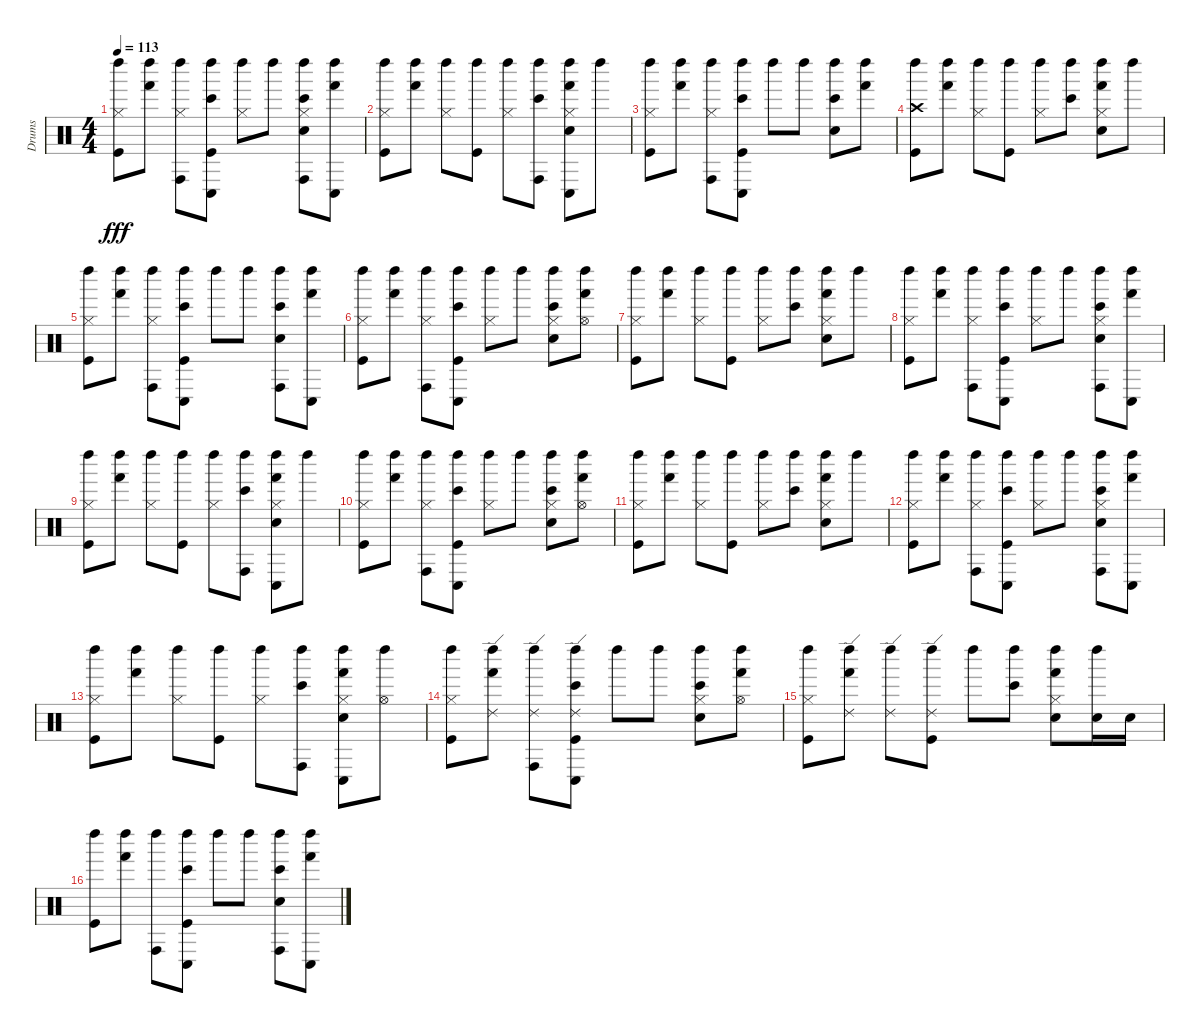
\track ("Drums" "Drums") {instrument percussion}
\staff {score}
\articulation defaults
\ts (4 4)
\tempo 113
\clef neutral
\ks c
("Hi-Hat (closed)" "Left Maraca (hit)" "Kick (hit)").8{dy fff} ("Left Maraca (hit)" "Hand (hit)").8 ("Hi-Hat (closed)" "Left Maraca (hit)" "Conga high (hit)").8 ("Left Maraca (hit)" "Conga low (hit)" "Bongo High (hit)" "Kick (hit)").8 ("Hi-Hat (closed)" "Left Maraca (hit)").8 "Left Maraca (hit)".8 ("Hi-Hat (closed)" "Left Maraca (hit)" "Conga high (hit)" "Bongo High (hit)" "Snare (hit) 2").8 ("Left Maraca (hit)" "Conga low (hit)" "Hand (hit)").8 |
("Hi-Hat (closed)" "Left Maraca (hit)" "Kick (hit)").8 ("Left Maraca (hit)" "Hand (hit)").8 ("Hi-Hat (closed)" "Left Maraca (hit)").8 ("Left Maraca (hit)" "Kick (hit)").8 ("Hi-Hat (closed)" "Left Maraca (hit)").8 ("Left Maraca (hit)" "Conga high (hit)" "Bongo High (hit)").8 ("Hi-Hat (closed)" "Left Maraca (hit)" "Conga low (hit)" "Hand (hit)" "Snare (hit) 2").8 "Left Maraca (hit)".8 |
("Hi-Hat (closed)" "Left Maraca (hit)" "Kick (hit)").8 ("Left Maraca (hit)" "Hand (hit)").8 ("Hi-Hat (closed)" "Left Maraca (hit)" "Conga high (hit)").8 ("Left Maraca (hit)" "Conga low (hit)" "Bongo High (hit)" "Kick (hit)").8 "Left Maraca (hit)".8 "Left Maraca (hit)".8 ("Left Maraca (hit)" "Bongo High (hit)" "Snare (hit) 2").8 ("Left Maraca (hit)" "Hand (hit)").8 |
("Crash high (hit)" "Left Maraca (hit)" "Kick (hit)").8 ("Left Maraca (hit)" "Hand (hit)").8 ("Hi-Hat (closed)" "Left Maraca (hit)").8 ("Left Maraca (hit)" "Kick (hit)").8 ("Hi-Hat (closed)" "Left Maraca (hit)").8 ("Left Maraca (hit)" "Bongo High (hit)").8 ("Hi-Hat (closed)" "Left Maraca (hit)" "Hand (hit)" "Snare (hit) 2").8 "Left Maraca (hit)".8 |
("Hi-Hat (closed)" "Left Maraca (hit)" "Kick (hit)").8 ("Left Maraca (hit)" "Hand (hit)").8 ("Hi-Hat (closed)" "Left Maraca (hit)" "Conga high (hit)").8 ("Left Maraca (hit)" "Conga low (hit)" "Bongo High (hit)" "Kick (hit)").8 "Left Maraca (hit)".8 "Left Maraca (hit)".8 ("Left Maraca (hit)" "Conga high (hit)" "Bongo High (hit)" "Snare (hit) 2").8 ("Left Maraca (hit)" "Conga low (hit)" "Hand (hit)").8 |
("Hi-Hat (closed)" "Left Maraca (hit)" "Kick (hit)").8 ("Left Maraca (hit)" "Hand (hit)").8 ("Hi-Hat (closed)" "Left Maraca (hit)" "Conga high (hit)").8 ("Left Maraca (hit)" "Conga low (hit)" "Bongo High (hit)" "Kick (hit)").8 ("Hi-Hat (closed)" "Left Maraca (hit)").8 "Left Maraca (hit)".8 ("Hi-Hat (closed)" "Left Maraca (hit)" "Bongo High (hit)" "Snare (hit) 2").8 ("Hi-Hat (open)" "Left Maraca (hit)" "Hand (hit)").8 |
("Hi-Hat (closed)" "Left Maraca (hit)" "Kick (hit)").8 ("Left Maraca (hit)" "Hand (hit)").8 ("Hi-Hat (closed)" "Left Maraca (hit)").8 ("Left Maraca (hit)" "Kick (hit)").8 ("Hi-Hat (closed)" "Left Maraca (hit)").8 ("Left Maraca (hit)" "Bongo High (hit)").8 ("Hi-Hat (closed)" "Left Maraca (hit)" "Hand (hit)" "Snare (hit) 2").8 "Left Maraca (hit)".8 |
("Hi-Hat (closed)" "Left Maraca (hit)" "Kick (hit)").8 ("Left Maraca (hit)" "Hand (hit)").8 ("Hi-Hat (closed)" "Left Maraca (hit)" "Conga high (hit)").8 ("Left Maraca (hit)" "Conga low (hit)" "Bongo High (hit)" "Kick (hit)").8 ("Hi-Hat (closed)" "Left Maraca (hit)").8 "Left Maraca (hit)".8 ("Hi-Hat (closed)" "Left Maraca (hit)" "Conga high (hit)" "Bongo High (hit)" "Snare (hit) 2").8 ("Left Maraca (hit)" "Conga low (hit)" "Hand (hit)").8 |
("Hi-Hat (closed)" "Left Maraca (hit)" "Kick (hit)").8 ("Left Maraca (hit)" "Hand (hit)").8 ("Hi-Hat (closed)" "Left Maraca (hit)").8 ("Left Maraca (hit)" "Kick (hit)").8 ("Hi-Hat (closed)" "Left Maraca (hit)").8 ("Left Maraca (hit)" "Conga high (hit)" "Bongo High (hit)").8 ("Hi-Hat (closed)" "Left Maraca (hit)" "Conga low (hit)" "Hand (hit)" "Snare (hit) 2").8 "Left Maraca (hit)".8 |
("Hi-Hat (closed)" "Left Maraca (hit)" "Kick (hit)").8 ("Left Maraca (hit)" "Hand (hit)").8 ("Hi-Hat (closed)" "Left Maraca (hit)" "Conga high (hit)").8 ("Left Maraca (hit)" "Conga low (hit)" "Bongo High (hit)" "Kick (hit)").8 ("Hi-Hat (closed)" "Left Maraca (hit)").8 "Left Maraca (hit)".8 ("Hi-Hat (closed)" "Left Maraca (hit)" "Bongo High (hit)" "Snare (hit) 2").8 ("Hi-Hat (open)" "Left Maraca (hit)" "Hand (hit)").8 |
("Hi-Hat (closed)" "Left Maraca (hit)" "Kick (hit)").8 ("Left Maraca (hit)" "Hand (hit)").8 ("Hi-Hat (closed)" "Left Maraca (hit)").8 ("Left Maraca (hit)" "Kick (hit)").8 ("Hi-Hat (closed)" "Left Maraca (hit)").8 ("Left Maraca (hit)" "Bongo High (hit)").8 ("Hi-Hat (closed)" "Left Maraca (hit)" "Hand (hit)" "Snare (hit) 2").8 "Left Maraca (hit)".8 |
("Hi-Hat (closed)" "Left Maraca (hit)" "Kick (hit)").8 ("Left Maraca (hit)" "Hand (hit)").8 ("Hi-Hat (closed)" "Left Maraca (hit)" "Conga high (hit)").8 ("Left Maraca (hit)" "Conga low (hit)" "Bongo High (hit)" "Kick (hit)").8 ("Hi-Hat (closed)" "Left Maraca (hit)").8 "Left Maraca (hit)".8 ("Hi-Hat (closed)" "Left Maraca (hit)" "Conga high (hit)" "Bongo High (hit)" "Snare (hit) 2").8 ("Left Maraca (hit)" "Conga low (hit)" "Hand (hit)").8 |
("Hi-Hat (closed)" "Left Maraca (hit)" "Kick (hit)").8 ("Left Maraca (hit)" "Hand (hit)").8 ("Hi-Hat (closed)" "Left Maraca (hit)").8 ("Left Maraca (hit)" "Kick (hit)").8 ("Hi-Hat (closed)" "Left Maraca (hit)").8 ("Left Maraca (hit)" "Conga high (hit)" "Bongo High (hit)").8 ("Hi-Hat (closed)" "Left Maraca (hit)" "Conga low (hit)" "Hand (hit)" "Snare (hit) 2").8 ("Hi-Hat (open)" "Left Maraca (hit)").8 |
("Hi-Hat (closed)" "Left Maraca (hit)" "Kick (hit)").8 ("Ride (edge) 2" "Left Maraca (hit)" "Hand (hit)").8 ("Ride (edge) 2" "Left Maraca (hit)" "Conga high (hit)").8 ("Ride (edge) 2" "Left Maraca (hit)" "Conga low (hit)" "Bongo High (hit)" "Kick (hit)").8 "Left Maraca (hit)".8 "Left Maraca (hit)".8 ("Hi-Hat (closed)" "Left Maraca (hit)" "Bongo High (hit)" "Snare (hit) 2").8 ("Hi-Hat (open)" "Left Maraca (hit)" "Hand (hit)").8 |
("Hi-Hat (closed)" "Left Maraca (hit)" "Kick (hit)").8 ("Ride (edge) 2" "Left Maraca (hit)" "Hand (hit)").8 ("Ride (edge) 2" "Left Maraca (hit)").8 ("Ride (edge) 2" "Left Maraca (hit)" "Kick (hit)").8 "Left Maraca (hit)".8 ("Left Maraca (hit)" "Bongo High (hit)").8 ("Hi-Hat (closed)" "Left Maraca (hit)" "Hand (hit)" "Snare (hit) 2").8 ("Left Maraca (hit)" "Snare (hit) 2").16 "Snare (hit) 2".16 |
("Left Maraca (hit)" "Kick (hit)").8 ("Left Maraca (hit)" "Hand (hit)").8 ("Left Maraca (hit)" "Conga high (hit)").8 ("Left Maraca (hit)" "Conga low (hit)" "Bongo High (hit)" "Kick (hit)").8 "Left Maraca (hit)".8 "Left Maraca (hit)".8 ("Left Maraca (hit)" "Conga high (hit)" "Bongo High (hit)" "Snare (hit) 2").8 ("Left Maraca (hit)" "Conga low (hit)" "Hand (hit)").8
